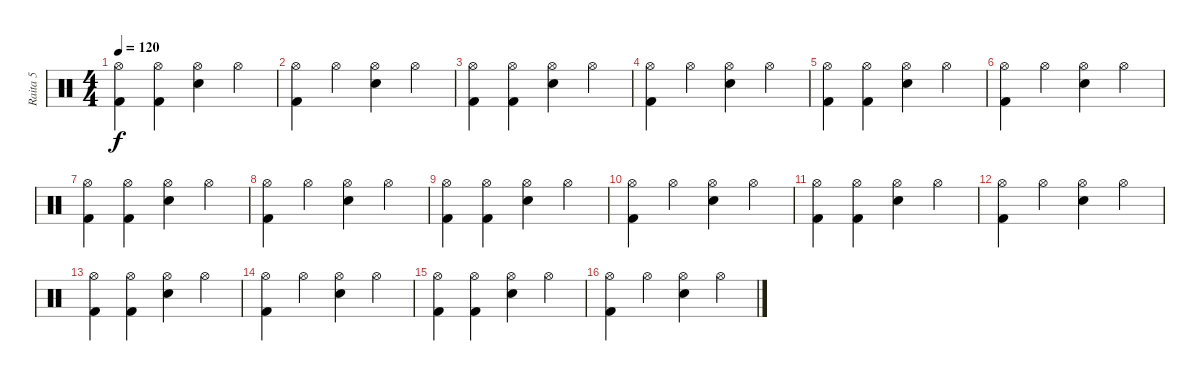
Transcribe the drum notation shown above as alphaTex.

\track ("Raita 5" "Raita 5") {instrument percussion}
\staff {score}
\articulation defaults
\ts (4 4)
\tempo 120
\clef neutral
\ks c
("Hi-Hat (open)" "Kick (hit) 2").4{dy f} ("Hi-Hat (open)" "Kick (hit) 2").4 ("Hi-Hat (open)" "Snare (hit) 2").4 "Hi-Hat (open)".4 |
("Hi-Hat (open)" "Kick (hit) 2").4 "Hi-Hat (open)".4 ("Hi-Hat (open)" "Snare (hit) 2").4 "Hi-Hat (open)".4 |
("Hi-Hat (open)" "Kick (hit) 2").4 ("Hi-Hat (open)" "Kick (hit) 2").4 ("Hi-Hat (open)" "Snare (hit) 2").4 "Hi-Hat (open)".4 |
("Hi-Hat (open)" "Kick (hit) 2").4 "Hi-Hat (open)".4 ("Hi-Hat (open)" "Snare (hit) 2").4 "Hi-Hat (open)".4 |
("Hi-Hat (open)" "Kick (hit) 2").4 ("Hi-Hat (open)" "Kick (hit) 2").4 ("Hi-Hat (open)" "Snare (hit) 2").4 "Hi-Hat (open)".4 |
("Hi-Hat (open)" "Kick (hit) 2").4 "Hi-Hat (open)".4 ("Hi-Hat (open)" "Snare (hit) 2").4 "Hi-Hat (open)".4 |
("Hi-Hat (open)" "Kick (hit) 2").4 ("Hi-Hat (open)" "Kick (hit) 2").4 ("Hi-Hat (open)" "Snare (hit) 2").4 "Hi-Hat (open)".4 |
("Hi-Hat (open)" "Kick (hit) 2").4 "Hi-Hat (open)".4 ("Hi-Hat (open)" "Snare (hit) 2").4 "Hi-Hat (open)".4 |
("Hi-Hat (open)" "Kick (hit) 2").4 ("Hi-Hat (open)" "Kick (hit) 2").4 ("Hi-Hat (open)" "Snare (hit) 2").4 "Hi-Hat (open)".4 |
("Hi-Hat (open)" "Kick (hit) 2").4 "Hi-Hat (open)".4 ("Hi-Hat (open)" "Snare (hit) 2").4 "Hi-Hat (open)".4 |
("Hi-Hat (open)" "Kick (hit) 2").4 ("Hi-Hat (open)" "Kick (hit) 2").4 ("Hi-Hat (open)" "Snare (hit) 2").4 "Hi-Hat (open)".4 |
("Hi-Hat (open)" "Kick (hit) 2").4 "Hi-Hat (open)".4 ("Hi-Hat (open)" "Snare (hit) 2").4 "Hi-Hat (open)".4 |
("Hi-Hat (open)" "Kick (hit) 2").4 ("Hi-Hat (open)" "Kick (hit) 2").4 ("Hi-Hat (open)" "Snare (hit) 2").4 "Hi-Hat (open)".4 |
("Hi-Hat (open)" "Kick (hit) 2").4 "Hi-Hat (open)".4 ("Hi-Hat (open)" "Snare (hit) 2").4 "Hi-Hat (open)".4 |
("Hi-Hat (open)" "Kick (hit) 2").4 ("Hi-Hat (open)" "Kick (hit) 2").4 ("Hi-Hat (open)" "Snare (hit) 2").4 "Hi-Hat (open)".4 |
("Hi-Hat (open)" "Kick (hit) 2").4 "Hi-Hat (open)".4 ("Hi-Hat (open)" "Snare (hit) 2").4 "Hi-Hat (open)".4
